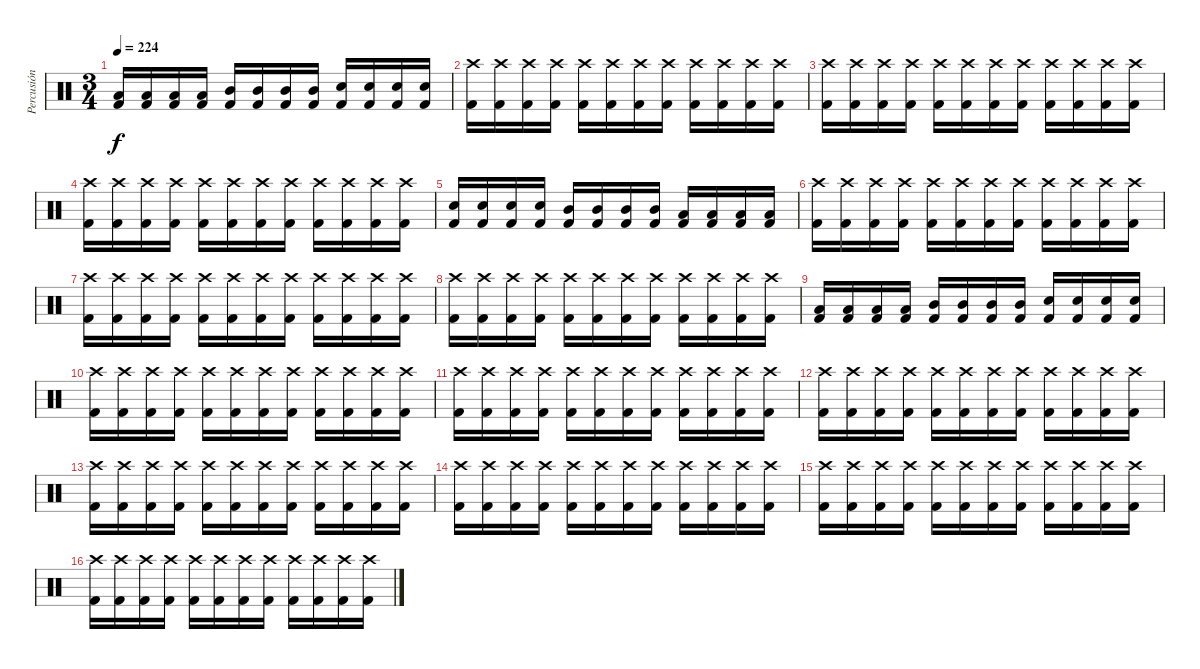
\track ("Percusión" "Percusión") {instrument percussion}
\staff {score}
\articulation defaults
\ts (3 4)
\tempo 224
\clef neutral
\ks c
("Low Tom (hit)" "Kick (hit) 2").16{dy f} ("Low Tom (hit)" "Kick (hit) 2").16 ("Low Tom (hit)" "Kick (hit) 2").16 ("Low Tom (hit)" "Kick (hit) 2").16 ("Mid Tom (hit)" "Kick (hit) 2").16 ("Mid Tom (hit)" "Kick (hit) 2").16 ("Mid Tom (hit)" "Kick (hit) 2").16 ("Mid Tom (hit)" "Kick (hit) 2").16 ("Electric Snare (hit)" "Kick (hit) 2").16 ("Electric Snare (hit)" "Kick (hit) 2").16 ("Electric Snare (hit)" "Kick (hit) 2").16 ("Electric Snare (hit)" "Kick (hit) 2").16 |
("Crash high (hit)" "Kick (hit) 2").16 ("Crash high (hit)" "Kick (hit) 2").16 ("Crash high (hit)" "Kick (hit) 2").16 ("Crash high (hit)" "Kick (hit) 2").16 ("Crash high (hit)" "Kick (hit) 2").16 ("Crash high (hit)" "Kick (hit) 2").16 ("Crash high (hit)" "Kick (hit) 2").16 ("Crash high (hit)" "Kick (hit) 2").16 ("Crash high (hit)" "Kick (hit) 2").16 ("Crash high (hit)" "Kick (hit) 2").16 ("Crash high (hit)" "Kick (hit) 2").16 ("Crash high (hit)" "Kick (hit) 2").16 |
("Crash high (hit)" "Kick (hit) 2").16 ("Crash high (hit)" "Kick (hit) 2").16 ("Crash high (hit)" "Kick (hit) 2").16 ("Crash high (hit)" "Kick (hit) 2").16 ("Crash high (hit)" "Kick (hit) 2").16 ("Crash high (hit)" "Kick (hit) 2").16 ("Crash high (hit)" "Kick (hit) 2").16 ("Crash high (hit)" "Kick (hit) 2").16 ("Crash high (hit)" "Kick (hit) 2").16 ("Crash high (hit)" "Kick (hit) 2").16 ("Crash high (hit)" "Kick (hit) 2").16 ("Crash high (hit)" "Kick (hit) 2").16 |
("Crash high (hit)" "Kick (hit) 2").16 ("Crash high (hit)" "Kick (hit) 2").16 ("Crash high (hit)" "Kick (hit) 2").16 ("Crash high (hit)" "Kick (hit) 2").16 ("Crash high (hit)" "Kick (hit) 2").16 ("Crash high (hit)" "Kick (hit) 2").16 ("Crash high (hit)" "Kick (hit) 2").16 ("Crash high (hit)" "Kick (hit) 2").16 ("Crash high (hit)" "Kick (hit) 2").16 ("Crash high (hit)" "Kick (hit) 2").16 ("Crash high (hit)" "Kick (hit) 2").16 ("Crash high (hit)" "Kick (hit) 2").16 |
("Electric Snare (hit)" "Kick (hit) 2").16 ("Electric Snare (hit)" "Kick (hit) 2").16 ("Electric Snare (hit)" "Kick (hit) 2").16 ("Electric Snare (hit)" "Kick (hit) 2").16 ("Mid Tom (hit)" "Kick (hit) 2").16 ("Mid Tom (hit)" "Kick (hit) 2").16 ("Mid Tom (hit)" "Kick (hit) 2").16 ("Mid Tom (hit)" "Kick (hit) 2").16 ("Low Tom (hit)" "Kick (hit) 2").16 ("Low Tom (hit)" "Kick (hit) 2").16 ("Low Tom (hit)" "Kick (hit) 2").16 ("Low Tom (hit)" "Kick (hit) 2").16 |
("Crash high (hit)" "Kick (hit) 2").16 ("Crash high (hit)" "Kick (hit) 2").16 ("Crash high (hit)" "Kick (hit) 2").16 ("Crash high (hit)" "Kick (hit) 2").16 ("Crash high (hit)" "Kick (hit) 2").16 ("Crash high (hit)" "Kick (hit) 2").16 ("Crash high (hit)" "Kick (hit) 2").16 ("Crash high (hit)" "Kick (hit) 2").16 ("Crash high (hit)" "Kick (hit) 2").16 ("Crash high (hit)" "Kick (hit) 2").16 ("Crash high (hit)" "Kick (hit) 2").16 ("Crash high (hit)" "Kick (hit) 2").16 |
("Crash high (hit)" "Kick (hit) 2").16 ("Crash high (hit)" "Kick (hit) 2").16 ("Crash high (hit)" "Kick (hit) 2").16 ("Crash high (hit)" "Kick (hit) 2").16 ("Crash high (hit)" "Kick (hit) 2").16 ("Crash high (hit)" "Kick (hit) 2").16 ("Crash high (hit)" "Kick (hit) 2").16 ("Crash high (hit)" "Kick (hit) 2").16 ("Crash high (hit)" "Kick (hit) 2").16 ("Crash high (hit)" "Kick (hit) 2").16 ("Crash high (hit)" "Kick (hit) 2").16 ("Crash high (hit)" "Kick (hit) 2").16 |
("Crash high (hit)" "Kick (hit) 2").16 ("Crash high (hit)" "Kick (hit) 2").16 ("Crash high (hit)" "Kick (hit) 2").16 ("Crash high (hit)" "Kick (hit) 2").16 ("Crash high (hit)" "Kick (hit) 2").16 ("Crash high (hit)" "Kick (hit) 2").16 ("Crash high (hit)" "Kick (hit) 2").16 ("Crash high (hit)" "Kick (hit) 2").16 ("Crash high (hit)" "Kick (hit) 2").16 ("Crash high (hit)" "Kick (hit) 2").16 ("Crash high (hit)" "Kick (hit) 2").16 ("Crash high (hit)" "Kick (hit) 2").16 |
("Low Tom (hit)" "Kick (hit) 2").16 ("Low Tom (hit)" "Kick (hit) 2").16 ("Low Tom (hit)" "Kick (hit) 2").16 ("Low Tom (hit)" "Kick (hit) 2").16 ("Mid Tom (hit)" "Kick (hit) 2").16 ("Mid Tom (hit)" "Kick (hit) 2").16 ("Mid Tom (hit)" "Kick (hit) 2").16 ("Mid Tom (hit)" "Kick (hit) 2").16 ("Electric Snare (hit)" "Kick (hit) 2").16 ("Electric Snare (hit)" "Kick (hit) 2").16 ("Electric Snare (hit)" "Kick (hit) 2").16 ("Electric Snare (hit)" "Kick (hit) 2").16 |
("Crash high (hit)" "Kick (hit) 2").16 ("Crash high (hit)" "Kick (hit) 2").16 ("Crash high (hit)" "Kick (hit) 2").16 ("Crash high (hit)" "Kick (hit) 2").16 ("Crash high (hit)" "Kick (hit) 2").16 ("Crash high (hit)" "Kick (hit) 2").16 ("Crash high (hit)" "Kick (hit) 2").16 ("Crash high (hit)" "Kick (hit) 2").16 ("Crash high (hit)" "Kick (hit) 2").16 ("Crash high (hit)" "Kick (hit) 2").16 ("Crash high (hit)" "Kick (hit) 2").16 ("Crash high (hit)" "Kick (hit) 2").16 |
("Crash high (hit)" "Kick (hit) 2").16 ("Crash high (hit)" "Kick (hit) 2").16 ("Crash high (hit)" "Kick (hit) 2").16 ("Crash high (hit)" "Kick (hit) 2").16 ("Crash high (hit)" "Kick (hit) 2").16 ("Crash high (hit)" "Kick (hit) 2").16 ("Crash high (hit)" "Kick (hit) 2").16 ("Crash high (hit)" "Kick (hit) 2").16 ("Crash high (hit)" "Kick (hit) 2").16 ("Crash high (hit)" "Kick (hit) 2").16 ("Crash high (hit)" "Kick (hit) 2").16 ("Crash high (hit)" "Kick (hit) 2").16 |
("Crash high (hit)" "Kick (hit) 2").16 ("Crash high (hit)" "Kick (hit) 2").16 ("Crash high (hit)" "Kick (hit) 2").16 ("Crash high (hit)" "Kick (hit) 2").16 ("Crash high (hit)" "Kick (hit) 2").16 ("Crash high (hit)" "Kick (hit) 2").16 ("Crash high (hit)" "Kick (hit) 2").16 ("Crash high (hit)" "Kick (hit) 2").16 ("Crash high (hit)" "Kick (hit) 2").16 ("Crash high (hit)" "Kick (hit) 2").16 ("Crash high (hit)" "Kick (hit) 2").16 ("Crash high (hit)" "Kick (hit) 2").16 |
("Crash high (hit)" "Kick (hit) 2").16 ("Crash high (hit)" "Kick (hit) 2").16 ("Crash high (hit)" "Kick (hit) 2").16 ("Crash high (hit)" "Kick (hit) 2").16 ("Crash high (hit)" "Kick (hit) 2").16 ("Crash high (hit)" "Kick (hit) 2").16 ("Crash high (hit)" "Kick (hit) 2").16 ("Crash high (hit)" "Kick (hit) 2").16 ("Crash high (hit)" "Kick (hit) 2").16 ("Crash high (hit)" "Kick (hit) 2").16 ("Crash high (hit)" "Kick (hit) 2").16 ("Crash high (hit)" "Kick (hit) 2").16 |
("Crash high (hit)" "Kick (hit) 2").16 ("Crash high (hit)" "Kick (hit) 2").16 ("Crash high (hit)" "Kick (hit) 2").16 ("Crash high (hit)" "Kick (hit) 2").16 ("Crash high (hit)" "Kick (hit) 2").16 ("Crash high (hit)" "Kick (hit) 2").16 ("Crash high (hit)" "Kick (hit) 2").16 ("Crash high (hit)" "Kick (hit) 2").16 ("Crash high (hit)" "Kick (hit) 2").16 ("Crash high (hit)" "Kick (hit) 2").16 ("Crash high (hit)" "Kick (hit) 2").16 ("Crash high (hit)" "Kick (hit) 2").16 |
("Crash high (hit)" "Kick (hit) 2").16 ("Crash high (hit)" "Kick (hit) 2").16 ("Crash high (hit)" "Kick (hit) 2").16 ("Crash high (hit)" "Kick (hit) 2").16 ("Crash high (hit)" "Kick (hit) 2").16 ("Crash high (hit)" "Kick (hit) 2").16 ("Crash high (hit)" "Kick (hit) 2").16 ("Crash high (hit)" "Kick (hit) 2").16 ("Crash high (hit)" "Kick (hit) 2").16 ("Crash high (hit)" "Kick (hit) 2").16 ("Crash high (hit)" "Kick (hit) 2").16 ("Crash high (hit)" "Kick (hit) 2").16 |
("Crash high (hit)" "Kick (hit) 2").16 ("Crash high (hit)" "Kick (hit) 2").16 ("Crash high (hit)" "Kick (hit) 2").16 ("Crash high (hit)" "Kick (hit) 2").16 ("Crash high (hit)" "Kick (hit) 2").16 ("Crash high (hit)" "Kick (hit) 2").16 ("Crash high (hit)" "Kick (hit) 2").16 ("Crash high (hit)" "Kick (hit) 2").16 ("Crash high (hit)" "Kick (hit) 2").16 ("Crash high (hit)" "Kick (hit) 2").16 ("Crash high (hit)" "Kick (hit) 2").16 ("Crash high (hit)" "Kick (hit) 2").16
